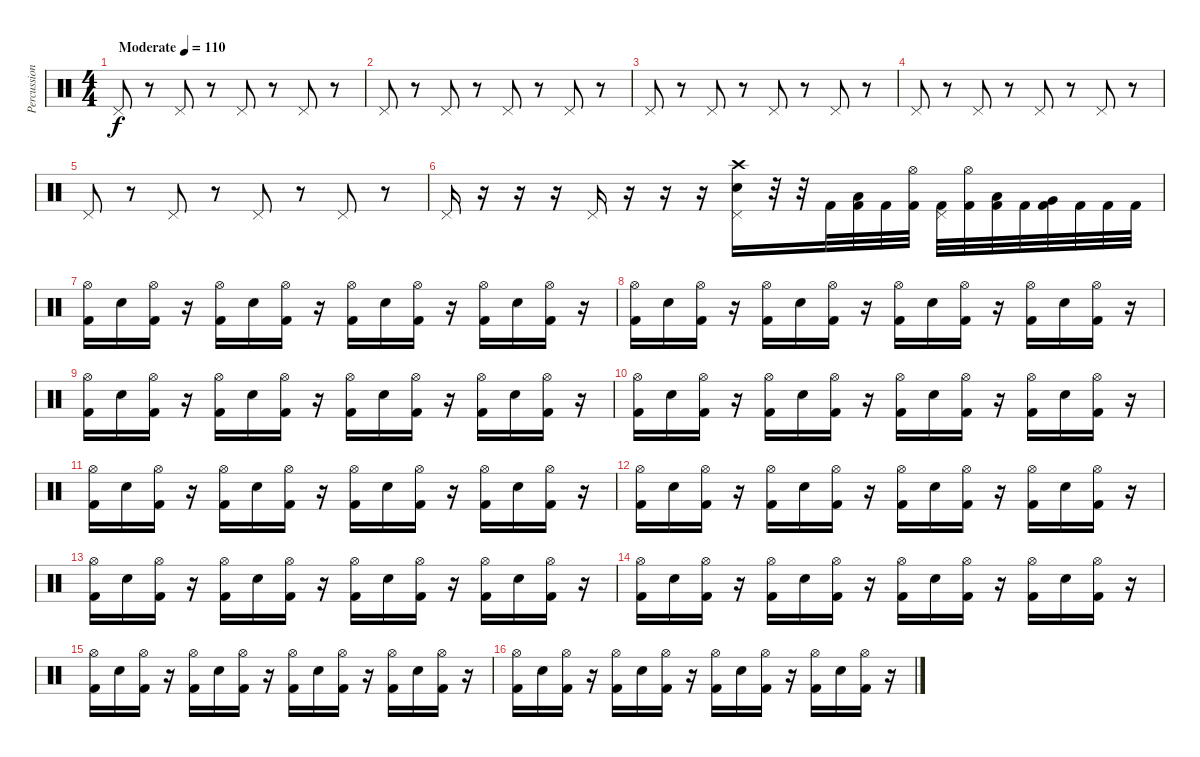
\track ("Percussion" "Percussion") {instrument percussion}
\staff {score}
\articulation defaults
\ts (4 4)
\tempo (110 "Moderate")
\clef neutral
\ks c "Pedal Hi-Hat (hit)".8{dy f}
r.8 "Pedal Hi-Hat (hit)".8 r.8 "Pedal Hi-Hat (hit)".8 r.8 "Pedal Hi-Hat (hit)".8 r.8 |
"Pedal Hi-Hat (hit)".8 r.8 "Pedal Hi-Hat (hit)".8 r.8 "Pedal Hi-Hat (hit)".8 r.8 "Pedal Hi-Hat (hit)".8 r.8 |
"Pedal Hi-Hat (hit)".8 r.8 "Pedal Hi-Hat (hit)".8 r.8 "Pedal Hi-Hat (hit)".8 r.8 "Pedal Hi-Hat (hit)".8 r.8 |
"Pedal Hi-Hat (hit)".8 r.8 "Pedal Hi-Hat (hit)".8 r.8 "Pedal Hi-Hat (hit)".8 r.8 "Pedal Hi-Hat (hit)".8 r.8 |
"Pedal Hi-Hat (hit)".8 r.8 "Pedal Hi-Hat (hit)".8 r.8 "Pedal Hi-Hat (hit)".8 r.8 "Pedal Hi-Hat (hit)".8 r.8 |
"Pedal Hi-Hat (hit)".16 r.16 r.16 r.16 "Pedal Hi-Hat (hit)".16 r.16 r.16 r.16 ("Pedal Hi-Hat (hit)" "Crash high (hit)" "Snare (hit) 2").16 r.32 r.32 "Kick (hit) 2".32 ("Low Tom (hit)" "Kick (hit) 2").32 "Kick (hit) 2".32 ("Hi-Hat (open)" "Kick (hit) 2").32 ("Pedal Hi-Hat (hit)" "Kick (hit) 2").32 ("Hi-Hat (open)" "Kick (hit) 2").32 ("Low Tom (hit)" "Kick (hit) 2").32 "Kick (hit) 2".32 ("Very Low Tom (hit)" "Kick (hit) 2").32 "Kick (hit) 2".32 "Kick (hit) 2".32 "Kick (hit) 2".32 |
("Hi-Hat (open)" "Kick (hit) 2").16 "Snare (hit) 2".16 ("Hi-Hat (open)" "Kick (hit) 2").16 r.16 ("Hi-Hat (open)" "Kick (hit) 2").16 "Snare (hit) 2".16 ("Hi-Hat (open)" "Kick (hit) 2").16 r.16 ("Hi-Hat (open)" "Kick (hit) 2").16 "Snare (hit) 2".16 ("Hi-Hat (open)" "Kick (hit) 2").16 r.16 ("Hi-Hat (open)" "Kick (hit) 2").16 "Snare (hit) 2".16 ("Hi-Hat (open)" "Kick (hit) 2").16 r.16 |
("Hi-Hat (open)" "Kick (hit) 2").16 "Snare (hit) 2".16 ("Hi-Hat (open)" "Kick (hit) 2").16 r.16 ("Hi-Hat (open)" "Kick (hit) 2").16 "Snare (hit) 2".16 ("Hi-Hat (open)" "Kick (hit) 2").16 r.16 ("Hi-Hat (open)" "Kick (hit) 2").16 "Snare (hit) 2".16 ("Hi-Hat (open)" "Kick (hit) 2").16 r.16 ("Hi-Hat (open)" "Kick (hit) 2").16 "Snare (hit) 2".16 ("Hi-Hat (open)" "Kick (hit) 2").16 r.16 |
("Hi-Hat (open)" "Kick (hit) 2").16 "Snare (hit) 2".16 ("Hi-Hat (open)" "Kick (hit) 2").16 r.16 ("Hi-Hat (open)" "Kick (hit) 2").16 "Snare (hit) 2".16 ("Hi-Hat (open)" "Kick (hit) 2").16 r.16 ("Hi-Hat (open)" "Kick (hit) 2").16 "Snare (hit) 2".16 ("Hi-Hat (open)" "Kick (hit) 2").16 r.16 ("Hi-Hat (open)" "Kick (hit) 2").16 "Snare (hit) 2".16 ("Hi-Hat (open)" "Kick (hit) 2").16 r.16 |
("Hi-Hat (open)" "Kick (hit) 2").16 "Snare (hit) 2".16 ("Hi-Hat (open)" "Kick (hit) 2").16 r.16 ("Hi-Hat (open)" "Kick (hit) 2").16 "Snare (hit) 2".16 ("Hi-Hat (open)" "Kick (hit) 2").16 r.16 ("Hi-Hat (open)" "Kick (hit) 2").16 "Snare (hit) 2".16 ("Hi-Hat (open)" "Kick (hit) 2").16 r.16 ("Hi-Hat (open)" "Kick (hit) 2").16 "Snare (hit) 2".16 ("Hi-Hat (open)" "Kick (hit) 2").16 r.16 |
("Hi-Hat (open)" "Kick (hit) 2").16 "Snare (hit) 2".16 ("Hi-Hat (open)" "Kick (hit) 2").16 r.16 ("Hi-Hat (open)" "Kick (hit) 2").16 "Snare (hit) 2".16 ("Hi-Hat (open)" "Kick (hit) 2").16 r.16 ("Hi-Hat (open)" "Kick (hit) 2").16 "Snare (hit) 2".16 ("Hi-Hat (open)" "Kick (hit) 2").16 r.16 ("Hi-Hat (open)" "Kick (hit) 2").16 "Snare (hit) 2".16 ("Hi-Hat (open)" "Kick (hit) 2").16 r.16 |
("Hi-Hat (open)" "Kick (hit) 2").16 "Snare (hit) 2".16 ("Hi-Hat (open)" "Kick (hit) 2").16 r.16 ("Hi-Hat (open)" "Kick (hit) 2").16 "Snare (hit) 2".16 ("Hi-Hat (open)" "Kick (hit) 2").16 r.16 ("Hi-Hat (open)" "Kick (hit) 2").16 "Snare (hit) 2".16 ("Hi-Hat (open)" "Kick (hit) 2").16 r.16 ("Hi-Hat (open)" "Kick (hit) 2").16 "Snare (hit) 2".16 ("Hi-Hat (open)" "Kick (hit) 2").16 r.16 |
("Hi-Hat (open)" "Kick (hit) 2").16 "Snare (hit) 2".16 ("Hi-Hat (open)" "Kick (hit) 2").16 r.16 ("Hi-Hat (open)" "Kick (hit) 2").16 "Snare (hit) 2".16 ("Hi-Hat (open)" "Kick (hit) 2").16 r.16 ("Hi-Hat (open)" "Kick (hit) 2").16 "Snare (hit) 2".16 ("Hi-Hat (open)" "Kick (hit) 2").16 r.16 ("Hi-Hat (open)" "Kick (hit) 2").16 "Snare (hit) 2".16 ("Hi-Hat (open)" "Kick (hit) 2").16 r.16 |
("Hi-Hat (open)" "Kick (hit) 2").16 "Snare (hit) 2".16 ("Hi-Hat (open)" "Kick (hit) 2").16 r.16 ("Hi-Hat (open)" "Kick (hit) 2").16 "Snare (hit) 2".16 ("Hi-Hat (open)" "Kick (hit) 2").16 r.16 ("Hi-Hat (open)" "Kick (hit) 2").16 "Snare (hit) 2".16 ("Hi-Hat (open)" "Kick (hit) 2").16 r.16 ("Hi-Hat (open)" "Kick (hit) 2").16 "Snare (hit) 2".16 ("Hi-Hat (open)" "Kick (hit) 2").16 r.16 |
("Hi-Hat (open)" "Kick (hit) 2").16 "Snare (hit) 2".16 ("Hi-Hat (open)" "Kick (hit) 2").16 r.16 ("Hi-Hat (open)" "Kick (hit) 2").16 "Snare (hit) 2".16 ("Hi-Hat (open)" "Kick (hit) 2").16 r.16 ("Hi-Hat (open)" "Kick (hit) 2").16 "Snare (hit) 2".16 ("Hi-Hat (open)" "Kick (hit) 2").16 r.16 ("Hi-Hat (open)" "Kick (hit) 2").16 "Snare (hit) 2".16 ("Hi-Hat (open)" "Kick (hit) 2").16 r.16 |
("Hi-Hat (open)" "Kick (hit) 2").16 "Snare (hit) 2".16 ("Hi-Hat (open)" "Kick (hit) 2").16 r.16 ("Hi-Hat (open)" "Kick (hit) 2").16 "Snare (hit) 2".16 ("Hi-Hat (open)" "Kick (hit) 2").16 r.16 ("Hi-Hat (open)" "Kick (hit) 2").16 "Snare (hit) 2".16 ("Hi-Hat (open)" "Kick (hit) 2").16 r.16 ("Hi-Hat (open)" "Kick (hit) 2").16 "Snare (hit) 2".16 ("Hi-Hat (open)" "Kick (hit) 2").16 r.16
